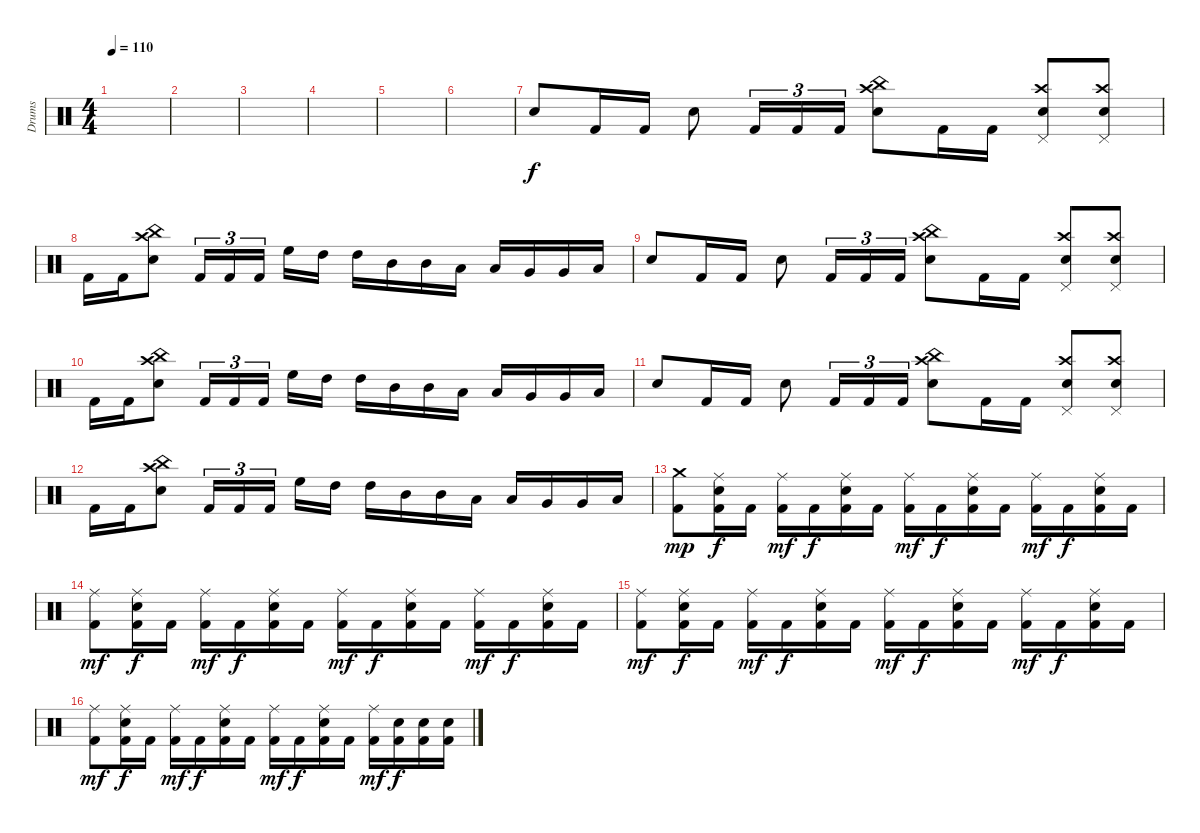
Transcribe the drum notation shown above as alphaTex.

\track ("Drums" "Drums") {instrument percussion}
\staff {score}
\articulation defaults
\ts (4 4)
\tempo 110
\clef neutral
\ks c
|
|
|
|
|
|
"Snare (hit) 2".8 "Kick (hit) 2".16 "Kick (hit) 2".16 "Snare (hit) 2".8 "Kick (hit) 2".16{tu (3 2)} "Kick (hit) 2".16{tu (3 2)} "Kick (hit) 2".16{tu (3 2)} ("Crash high (hit)" "China (hit)" "Snare (hit) 2").8 "Kick (hit) 2".16 "Kick (hit) 2".16 ("Snare (hit) 2" "Crash high (hit)" "Pedal Hi-Hat (hit)").8 ("Snare (hit) 2" "Crash high (hit)" "Pedal Hi-Hat (hit)").8 |
"Kick (hit) 2".16 "Kick (hit) 2".16 ("Crash high (hit)" "Snare (hit) 2" "China (hit)").8 "Kick (hit) 2".16{tu (3 2)} "Kick (hit) 2".16{tu (3 2)} "Kick (hit) 2".16{tu (3 2)} "High Floor Tom (hit)".16 "High Tom (hit)".16 "High Tom (hit)".16 "Mid Tom (hit)".16 "Mid Tom (hit)".16 "Low Tom (hit)".16 "Low Tom (hit)".16 "Very Low Tom (hit)".16 "Very Low Tom (hit)".16 "Low Floor Tom (hit)".16 |
"Snare (hit) 2".8 "Kick (hit) 2".16 "Kick (hit) 2".16 "Snare (hit) 2".8 "Kick (hit) 2".16{tu (3 2)} "Kick (hit) 2".16{tu (3 2)} "Kick (hit) 2".16{tu (3 2)} ("Crash high (hit)" "China (hit)" "Snare (hit) 2").8 "Kick (hit) 2".16 "Kick (hit) 2".16 ("Snare (hit) 2" "Crash high (hit)" "Pedal Hi-Hat (hit)").8 ("Snare (hit) 2" "Crash high (hit)" "Pedal Hi-Hat (hit)").8 |
"Kick (hit) 2".16 "Kick (hit) 2".16 ("Crash high (hit)" "Snare (hit) 2" "China (hit)").8 "Kick (hit) 2".16{tu (3 2)} "Kick (hit) 2".16{tu (3 2)} "Kick (hit) 2".16{tu (3 2)} "High Floor Tom (hit)".16 "High Tom (hit)".16 "High Tom (hit)".16 "Mid Tom (hit)".16 "Mid Tom (hit)".16 "Low Tom (hit)".16 "Low Tom (hit)".16 "Very Low Tom (hit)".16 "Very Low Tom (hit)".16 "Low Floor Tom (hit)".16 |
"Snare (hit) 2".8 "Kick (hit) 2".16 "Kick (hit) 2".16 "Snare (hit) 2".8 "Kick (hit) 2".16{tu (3 2)} "Kick (hit) 2".16{tu (3 2)} "Kick (hit) 2".16{tu (3 2)} ("Crash high (hit)" "China (hit)" "Snare (hit) 2").8 "Kick (hit) 2".16 "Kick (hit) 2".16 ("Snare (hit) 2" "Crash high (hit)" "Pedal Hi-Hat (hit)").8 ("Snare (hit) 2" "Crash high (hit)" "Pedal Hi-Hat (hit)").8 |
"Kick (hit) 2".16 "Kick (hit) 2".16 ("Crash high (hit)" "Snare (hit) 2" "China (hit)").8 "Kick (hit) 2".16{tu (3 2)} "Kick (hit) 2".16{tu (3 2)} "Kick (hit) 2".16{tu (3 2)} "High Floor Tom (hit)".16 "High Tom (hit)".16 "High Tom (hit)".16 "Mid Tom (hit)".16 "Mid Tom (hit)".16 "Low Tom (hit)".16 "Low Tom (hit)".16 "Very Low Tom (hit)".16 "Very Low Tom (hit)".16 "Low Floor Tom (hit)".16 |
("Crash medium (hit)" "Kick (hit) 2").8{dy mp} ("Ride (middle)" "Electric Snare (hit)" "Kick (hit) 2").16{dy f} "Kick (hit) 2".16 ("Ride (middle)" "Kick (hit) 2").16{dy mf} "Kick (hit) 2".16{dy f} ("Ride (middle)" "Electric Snare (hit)" "Kick (hit) 2").16 "Kick (hit) 2".16 ("Ride (middle)" "Kick (hit) 2").16{dy mf} "Kick (hit) 2".16{dy f} ("Ride (middle)" "Electric Snare (hit)" "Kick (hit) 2").16 "Kick (hit) 2".16 ("Ride (middle)" "Kick (hit) 2").16{dy mf} "Kick (hit) 2".16{dy f} ("Ride (middle)" "Electric Snare (hit)" "Kick (hit) 2").16 "Kick (hit) 2".16 |
("Ride (middle)" "Kick (hit) 2").8{dy mf} ("Ride (middle)" "Electric Snare (hit)" "Kick (hit) 2").16{dy f} "Kick (hit) 2".16 ("Ride (middle)" "Kick (hit) 2").16{dy mf} "Kick (hit) 2".16{dy f} ("Ride (middle)" "Electric Snare (hit)" "Kick (hit) 2").16 "Kick (hit) 2".16 ("Ride (middle)" "Kick (hit) 2").16{dy mf} "Kick (hit) 2".16{dy f} ("Ride (middle)" "Electric Snare (hit)" "Kick (hit) 2").16 "Kick (hit) 2".16 ("Ride (middle)" "Kick (hit) 2").16{dy mf} "Kick (hit) 2".16{dy f} ("Ride (middle)" "Electric Snare (hit)" "Kick (hit) 2").16 "Kick (hit) 2".16 |
("Ride (middle)" "Kick (hit) 2").8{dy mf} ("Ride (middle)" "Electric Snare (hit)" "Kick (hit) 2").16{dy f} "Kick (hit) 2".16 ("Ride (middle)" "Kick (hit) 2").16{dy mf} "Kick (hit) 2".16{dy f} ("Ride (middle)" "Electric Snare (hit)" "Kick (hit) 2").16 "Kick (hit) 2".16 ("Ride (middle)" "Kick (hit) 2").16{dy mf} "Kick (hit) 2".16{dy f} ("Ride (middle)" "Electric Snare (hit)" "Kick (hit) 2").16 "Kick (hit) 2".16 ("Ride (middle)" "Kick (hit) 2").16{dy mf} "Kick (hit) 2".16{dy f} ("Ride (middle)" "Electric Snare (hit)" "Kick (hit) 2").16 "Kick (hit) 2".16 |
("Ride (middle)" "Kick (hit) 2").8{dy mf} ("Ride (middle)" "Electric Snare (hit)" "Kick (hit) 2").16{dy f} "Kick (hit) 2".16 ("Ride (middle)" "Kick (hit) 2").16{dy mf} "Kick (hit) 2".16{dy f} ("Ride (middle)" "Electric Snare (hit)" "Kick (hit) 2").16 "Kick (hit) 2".16 ("Ride (middle)" "Kick (hit) 2").16{dy mf} "Kick (hit) 2".16{dy f} ("Ride (middle)" "Electric Snare (hit)" "Kick (hit) 2").16 "Kick (hit) 2".16 ("Ride (middle)" "Kick (hit) 2").16{dy mf} ("Electric Snare (hit)" "Kick (hit) 2").16{dy f} ("Electric Snare (hit)" "Kick (hit) 2").16 ("Electric Snare (hit)" "Kick (hit) 2").16
